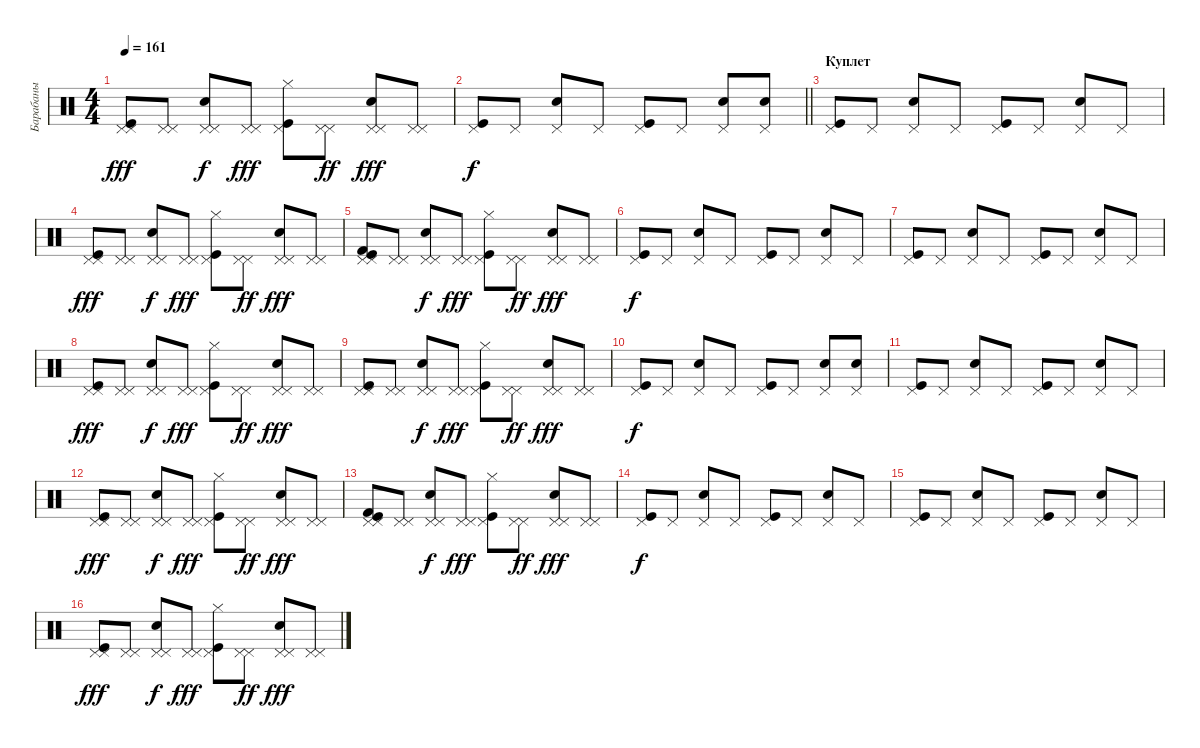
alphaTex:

\track ("Барабаны" "Барабаны") {instrument percussion}
\staff {score}
\articulation defaults
\ts (4 4)
\tempo 161
\clef neutral
\ks c
("Pedal Hi-Hat (hit)" "Pedal Hi-Hat (hit)" "Kick (hit)").8{dy fff} ("Pedal Hi-Hat (hit)" "Pedal Hi-Hat (hit)").8 ("Snare (hit) 2" "Pedal Hi-Hat (hit)" "Pedal Hi-Hat (hit)").8{dy f} ("Pedal Hi-Hat (hit)" "Pedal Hi-Hat (hit)").8{dy fff} ("Kick (hit)" "Pedal Hi-Hat (hit)" "Hi-Hat (closed)").8 ("Pedal Hi-Hat (hit)" "Pedal Hi-Hat (hit)").8{dy ff} ("Snare (hit) 2" "Pedal Hi-Hat (hit)" "Pedal Hi-Hat (hit)").8{dy fff} ("Pedal Hi-Hat (hit)" "Pedal Hi-Hat (hit)").8 |
\barLineRight lightlight
("Kick (hit)" "Pedal Hi-Hat (hit)").8{dy f} "Pedal Hi-Hat (hit)".8 ("Snare (hit) 2" "Pedal Hi-Hat (hit)").8 "Pedal Hi-Hat (hit)".8 ("Kick (hit)" "Pedal Hi-Hat (hit)").8 "Pedal Hi-Hat (hit)".8 ("Snare (hit) 2" "Pedal Hi-Hat (hit)").8 ("Snare (hit) 2" "Pedal Hi-Hat (hit)").8 |
\section ("" "Куплет")
("Kick (hit)" "Pedal Hi-Hat (hit)").8 "Pedal Hi-Hat (hit)".8 ("Snare (hit) 2" "Pedal Hi-Hat (hit)").8 "Pedal Hi-Hat (hit)".8 ("Kick (hit)" "Pedal Hi-Hat (hit)").8 "Pedal Hi-Hat (hit)".8 ("Snare (hit) 2" "Pedal Hi-Hat (hit)").8 "Pedal Hi-Hat (hit)".8 |
("Pedal Hi-Hat (hit)" "Kick (hit)" "Pedal Hi-Hat (hit)").8{dy fff} ("Pedal Hi-Hat (hit)" "Pedal Hi-Hat (hit)").8 ("Snare (hit) 2" "Pedal Hi-Hat (hit)" "Pedal Hi-Hat (hit)").8{dy f} ("Pedal Hi-Hat (hit)" "Pedal Hi-Hat (hit)").8{dy fff} ("Kick (hit)" "Hi-Hat (closed)" "Pedal Hi-Hat (hit)").8 ("Pedal Hi-Hat (hit)" "Pedal Hi-Hat (hit)").8{dy ff} ("Snare (hit) 2" "Pedal Hi-Hat (hit)" "Pedal Hi-Hat (hit)").8{dy fff} ("Pedal Hi-Hat (hit)" "Pedal Hi-Hat (hit)").8 |
("Pedal Hi-Hat (hit)" "Pedal Hi-Hat (hit)" "Kick (hit)" "Kick (hit) 2").8 ("Pedal Hi-Hat (hit)" "Pedal Hi-Hat (hit)").8 ("Snare (hit) 2" "Pedal Hi-Hat (hit)" "Pedal Hi-Hat (hit)").8{dy f} ("Pedal Hi-Hat (hit)" "Pedal Hi-Hat (hit)").8{dy fff} ("Kick (hit)" "Pedal Hi-Hat (hit)" "Hi-Hat (closed)").8 ("Pedal Hi-Hat (hit)" "Pedal Hi-Hat (hit)").8{dy ff} ("Snare (hit) 2" "Pedal Hi-Hat (hit)" "Pedal Hi-Hat (hit)").8{dy fff} ("Pedal Hi-Hat (hit)" "Pedal Hi-Hat (hit)").8 |
("Kick (hit)" "Pedal Hi-Hat (hit)").8{dy f} "Pedal Hi-Hat (hit)".8 ("Snare (hit) 2" "Pedal Hi-Hat (hit)").8 "Pedal Hi-Hat (hit)".8 ("Kick (hit)" "Pedal Hi-Hat (hit)").8 "Pedal Hi-Hat (hit)".8 ("Snare (hit) 2" "Pedal Hi-Hat (hit)").8 "Pedal Hi-Hat (hit)".8 |
("Kick (hit)" "Pedal Hi-Hat (hit)").8 "Pedal Hi-Hat (hit)".8 ("Snare (hit) 2" "Pedal Hi-Hat (hit)").8 "Pedal Hi-Hat (hit)".8 ("Kick (hit)" "Pedal Hi-Hat (hit)").8 "Pedal Hi-Hat (hit)".8 ("Snare (hit) 2" "Pedal Hi-Hat (hit)").8 "Pedal Hi-Hat (hit)".8 |
("Pedal Hi-Hat (hit)" "Kick (hit)" "Pedal Hi-Hat (hit)").8{dy fff} ("Pedal Hi-Hat (hit)" "Pedal Hi-Hat (hit)").8 ("Snare (hit) 2" "Pedal Hi-Hat (hit)" "Pedal Hi-Hat (hit)").8{dy f} ("Pedal Hi-Hat (hit)" "Pedal Hi-Hat (hit)").8{dy fff} ("Kick (hit)" "Hi-Hat (closed)" "Pedal Hi-Hat (hit)").8 ("Pedal Hi-Hat (hit)" "Pedal Hi-Hat (hit)").8{dy ff} ("Snare (hit) 2" "Pedal Hi-Hat (hit)" "Pedal Hi-Hat (hit)").8{dy fff} ("Pedal Hi-Hat (hit)" "Pedal Hi-Hat (hit)").8 |
("Kick (hit)" "Pedal Hi-Hat (hit)" "Pedal Hi-Hat (hit)").8 ("Pedal Hi-Hat (hit)" "Pedal Hi-Hat (hit)").8 ("Snare (hit) 2" "Pedal Hi-Hat (hit)" "Pedal Hi-Hat (hit)").8{dy f} ("Pedal Hi-Hat (hit)" "Pedal Hi-Hat (hit)").8{dy fff} ("Kick (hit)" "Pedal Hi-Hat (hit)" "Hi-Hat (closed)").8 ("Pedal Hi-Hat (hit)" "Pedal Hi-Hat (hit)").8{dy ff} ("Snare (hit) 2" "Pedal Hi-Hat (hit)" "Pedal Hi-Hat (hit)").8{dy fff} ("Pedal Hi-Hat (hit)" "Pedal Hi-Hat (hit)").8 |
("Pedal Hi-Hat (hit)" "Kick (hit)").8{dy f} "Pedal Hi-Hat (hit)".8 ("Snare (hit) 2" "Pedal Hi-Hat (hit)").8 "Pedal Hi-Hat (hit)".8 ("Kick (hit)" "Pedal Hi-Hat (hit)").8 "Pedal Hi-Hat (hit)".8 ("Snare (hit) 2" "Pedal Hi-Hat (hit)").8 ("Snare (hit) 2" "Pedal Hi-Hat (hit)").8 |
("Kick (hit)" "Pedal Hi-Hat (hit)").8 "Pedal Hi-Hat (hit)".8 ("Snare (hit) 2" "Pedal Hi-Hat (hit)").8 "Pedal Hi-Hat (hit)".8 ("Kick (hit)" "Pedal Hi-Hat (hit)").8 "Pedal Hi-Hat (hit)".8 ("Snare (hit) 2" "Pedal Hi-Hat (hit)").8 "Pedal Hi-Hat (hit)".8 |
("Pedal Hi-Hat (hit)" "Kick (hit)" "Pedal Hi-Hat (hit)").8{dy fff} ("Pedal Hi-Hat (hit)" "Pedal Hi-Hat (hit)").8 ("Snare (hit) 2" "Pedal Hi-Hat (hit)" "Pedal Hi-Hat (hit)").8{dy f} ("Pedal Hi-Hat (hit)" "Pedal Hi-Hat (hit)").8{dy fff} ("Kick (hit)" "Hi-Hat (closed)" "Pedal Hi-Hat (hit)").8 ("Pedal Hi-Hat (hit)" "Pedal Hi-Hat (hit)").8{dy ff} ("Snare (hit) 2" "Pedal Hi-Hat (hit)" "Pedal Hi-Hat (hit)").8{dy fff} ("Pedal Hi-Hat (hit)" "Pedal Hi-Hat (hit)").8 |
("Kick (hit) 2" "Pedal Hi-Hat (hit)" "Pedal Hi-Hat (hit)" "Kick (hit)").8 ("Pedal Hi-Hat (hit)" "Pedal Hi-Hat (hit)").8 ("Snare (hit) 2" "Pedal Hi-Hat (hit)" "Pedal Hi-Hat (hit)").8{dy f} ("Pedal Hi-Hat (hit)" "Pedal Hi-Hat (hit)").8{dy fff} ("Kick (hit)" "Pedal Hi-Hat (hit)" "Hi-Hat (closed)").8 ("Pedal Hi-Hat (hit)" "Pedal Hi-Hat (hit)").8{dy ff} ("Snare (hit) 2" "Pedal Hi-Hat (hit)" "Pedal Hi-Hat (hit)").8{dy fff} ("Pedal Hi-Hat (hit)" "Pedal Hi-Hat (hit)").8 |
("Pedal Hi-Hat (hit)" "Kick (hit)").8{dy f} "Pedal Hi-Hat (hit)".8 ("Snare (hit) 2" "Pedal Hi-Hat (hit)").8 "Pedal Hi-Hat (hit)".8 ("Kick (hit)" "Pedal Hi-Hat (hit)").8 "Pedal Hi-Hat (hit)".8 ("Snare (hit) 2" "Pedal Hi-Hat (hit)").8 "Pedal Hi-Hat (hit)".8 |
("Kick (hit)" "Pedal Hi-Hat (hit)").8 "Pedal Hi-Hat (hit)".8 ("Snare (hit) 2" "Pedal Hi-Hat (hit)").8 "Pedal Hi-Hat (hit)".8 ("Kick (hit)" "Pedal Hi-Hat (hit)").8 "Pedal Hi-Hat (hit)".8 ("Snare (hit) 2" "Pedal Hi-Hat (hit)").8 "Pedal Hi-Hat (hit)".8 |
("Pedal Hi-Hat (hit)" "Kick (hit)" "Pedal Hi-Hat (hit)").8{dy fff} ("Pedal Hi-Hat (hit)" "Pedal Hi-Hat (hit)").8 ("Snare (hit) 2" "Pedal Hi-Hat (hit)" "Pedal Hi-Hat (hit)").8{dy f} ("Pedal Hi-Hat (hit)" "Pedal Hi-Hat (hit)").8{dy fff} ("Kick (hit)" "Hi-Hat (closed)" "Pedal Hi-Hat (hit)").8 ("Pedal Hi-Hat (hit)" "Pedal Hi-Hat (hit)").8{dy ff} ("Snare (hit) 2" "Pedal Hi-Hat (hit)" "Pedal Hi-Hat (hit)").8{dy fff} ("Pedal Hi-Hat (hit)" "Pedal Hi-Hat (hit)").8
